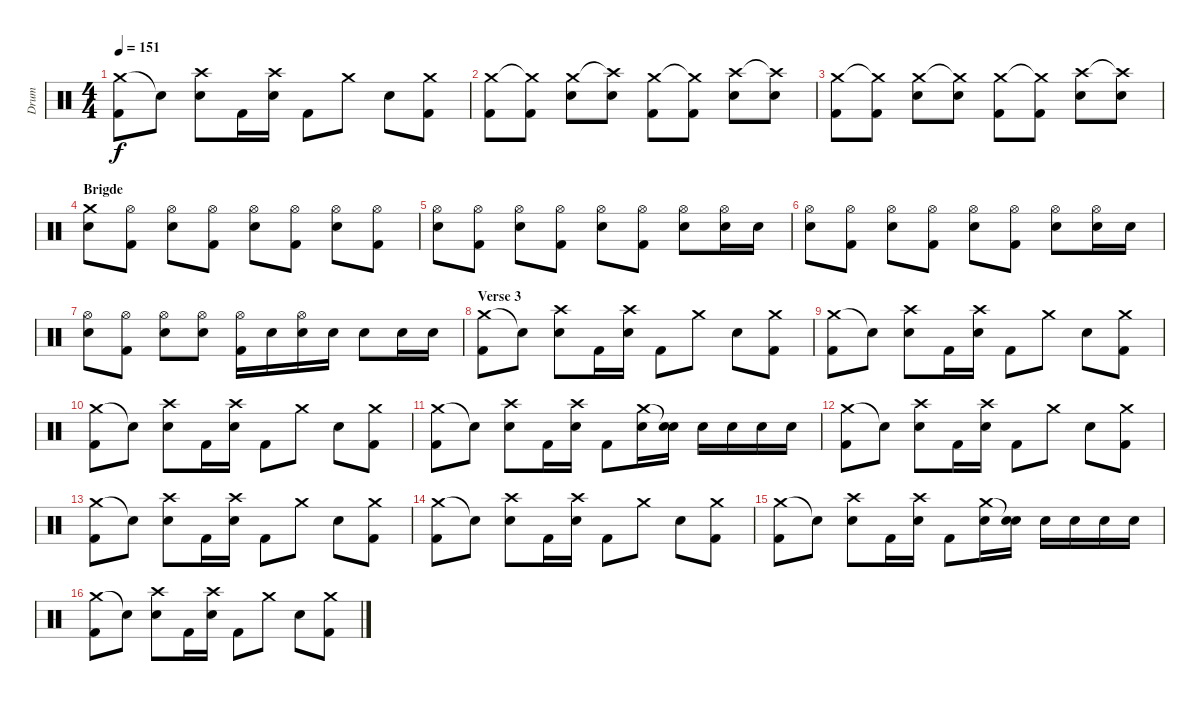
\track ("Drum" "Drum") {instrument percussion}
\staff {score}
\articulation defaults
\ts (4 4)
\tempo 151
\clef neutral
\ks c
("Crash medium (hit)" "Kick (hit) 2").8{dy f} "Snare (hit)"{t}.8 ("Crash high (hit)" "Electric Snare (hit)").8 "Kick (hit) 2".16 ("Crash high (hit)" "Electric Snare (hit)").16 "Kick (hit) 2".8 "Crash medium (hit)".8 "Electric Snare (hit)".8 ("Crash medium (hit)" "Kick (hit) 2").8 |
("Crash medium (hit)" "Kick (hit) 2").8 ("Crash medium (hit)"{t} "Kick (hit) 2").8 ("Crash medium (hit)" "Electric Snare (hit)").8 ("Crash high (hit)"{t} "Electric Snare (hit)").8 ("Crash medium (hit)" "Kick (hit) 2").8 ("Crash medium (hit)"{t} "Kick (hit) 2").8 ("Crash high (hit)" "Electric Snare (hit)").8 ("Crash high (hit)"{t} "Electric Snare (hit)").8 |
("Crash medium (hit)" "Kick (hit) 2").8 ("Crash medium (hit)"{t} "Kick (hit) 2").8 ("Crash medium (hit)" "Electric Snare (hit)").8 ("Crash medium (hit)"{t} "Electric Snare (hit)").8 ("Crash medium (hit)" "Kick (hit) 2").8 ("Crash medium (hit)"{t} "Kick (hit) 2").8 ("Crash high (hit)" "Electric Snare (hit)").8 ("Crash high (hit)"{t} "Electric Snare (hit)").8 |
\section ("" "Brigde")
("Crash medium (hit)" "Electric Snare (hit)").8 ("Hi-Hat (open)" "Kick (hit) 2").8 ("Hi-Hat (open)" "Electric Snare (hit)").8 ("Hi-Hat (open)" "Kick (hit) 2").8 ("Hi-Hat (open)" "Electric Snare (hit)").8 ("Hi-Hat (open)" "Kick (hit) 2").8 ("Hi-Hat (open)" "Electric Snare (hit)").8 ("Hi-Hat (open)" "Kick (hit) 2").8 |
("Hi-Hat (open)" "Electric Snare (hit)").8 ("Hi-Hat (open)" "Kick (hit) 2").8 ("Hi-Hat (open)" "Electric Snare (hit)").8 ("Hi-Hat (open)" "Kick (hit) 2").8 ("Hi-Hat (open)" "Electric Snare (hit)").8 ("Hi-Hat (open)" "Kick (hit) 2").8 ("Hi-Hat (open)" "Electric Snare (hit)").8 ("Hi-Hat (open)" "Electric Snare (hit)").16 "Electric Snare (hit)".16 |
("Hi-Hat (open)" "Electric Snare (hit)").8 ("Hi-Hat (open)" "Kick (hit) 2").8 ("Hi-Hat (open)" "Electric Snare (hit)").8 ("Hi-Hat (open)" "Kick (hit) 2").8 ("Hi-Hat (open)" "Electric Snare (hit)").8 ("Hi-Hat (open)" "Kick (hit) 2").8 ("Hi-Hat (open)" "Electric Snare (hit)").8 ("Hi-Hat (open)" "Electric Snare (hit)").16 "Electric Snare (hit)".16 |
("Hi-Hat (open)" "Electric Snare (hit)").8 ("Hi-Hat (open)" "Kick (hit) 2").8 ("Hi-Hat (open)" "Electric Snare (hit)").8 ("Hi-Hat (open)" "Electric Snare (hit)").8 ("Hi-Hat (open)" "Kick (hit) 2").16 "Electric Snare (hit)".16 ("Hi-Hat (open)" "Electric Snare (hit)").16 "Electric Snare (hit)".16 "Electric Snare (hit)".8 "Electric Snare (hit)".16 "Electric Snare (hit)".16 |
\section ("" "Verse 3")
("Crash medium (hit)" "Kick (hit) 2").8 "Snare (hit)"{t}.8 ("Crash high (hit)" "Electric Snare (hit)").8 "Kick (hit) 2".16 ("Crash high (hit)" "Electric Snare (hit)").16 "Kick (hit) 2".8 "Crash medium (hit)".8 "Electric Snare (hit)".8 ("Crash medium (hit)" "Kick (hit) 2").8 |
("Crash medium (hit)" "Kick (hit) 2").8 "Snare (hit)"{t}.8 ("Crash high (hit)" "Electric Snare (hit)").8 "Kick (hit) 2".16 ("Crash high (hit)" "Electric Snare (hit)").16 "Kick (hit) 2".8 "Crash medium (hit)".8 "Electric Snare (hit)".8 ("Crash medium (hit)" "Kick (hit) 2").8 |
("Crash medium (hit)" "Kick (hit) 2").8 "Snare (hit)"{t}.8 ("Crash high (hit)" "Electric Snare (hit)").8 "Kick (hit) 2".16 ("Crash high (hit)" "Electric Snare (hit)").16 "Kick (hit) 2".8 "Crash medium (hit)".8 "Electric Snare (hit)".8 ("Crash medium (hit)" "Kick (hit) 2").8 |
("Crash medium (hit)" "Kick (hit) 2").8 "Snare (hit)"{t}.8 ("Crash high (hit)" "Electric Snare (hit)").8 "Kick (hit) 2".16 ("Crash high (hit)" "Electric Snare (hit)").16 "Kick (hit) 2".8 ("Crash medium (hit)" "Electric Snare (hit)").16 ("Snare (hit)"{t} "Electric Snare (hit)").16 "Electric Snare (hit)".16 "Electric Snare (hit)".16 "Electric Snare (hit)".16 "Electric Snare (hit)".16 |
("Crash medium (hit)" "Kick (hit) 2").8 "Snare (hit)"{t}.8 ("Crash high (hit)" "Electric Snare (hit)").8 "Kick (hit) 2".16 ("Crash high (hit)" "Electric Snare (hit)").16 "Kick (hit) 2".8 "Crash medium (hit)".8 "Electric Snare (hit)".8 ("Crash medium (hit)" "Kick (hit) 2").8 |
("Crash medium (hit)" "Kick (hit) 2").8 "Snare (hit)"{t}.8 ("Crash high (hit)" "Electric Snare (hit)").8 "Kick (hit) 2".16 ("Crash high (hit)" "Electric Snare (hit)").16 "Kick (hit) 2".8 "Crash medium (hit)".8 "Electric Snare (hit)".8 ("Crash medium (hit)" "Kick (hit) 2").8 |
("Crash medium (hit)" "Kick (hit) 2").8 "Snare (hit)"{t}.8 ("Crash high (hit)" "Electric Snare (hit)").8 "Kick (hit) 2".16 ("Crash high (hit)" "Electric Snare (hit)").16 "Kick (hit) 2".8 "Crash medium (hit)".8 "Electric Snare (hit)".8 ("Crash medium (hit)" "Kick (hit) 2").8 |
("Crash medium (hit)" "Kick (hit) 2").8 "Snare (hit)"{t}.8 ("Crash high (hit)" "Electric Snare (hit)").8 "Kick (hit) 2".16 ("Crash high (hit)" "Electric Snare (hit)").16 "Kick (hit) 2".8 ("Crash medium (hit)" "Electric Snare (hit)").16 ("Snare (hit)"{t} "Electric Snare (hit)").16 "Electric Snare (hit)".16 "Electric Snare (hit)".16 "Electric Snare (hit)".16 "Electric Snare (hit)".16 |
("Crash medium (hit)" "Kick (hit) 2").8 "Snare (hit)"{t}.8 ("Crash high (hit)" "Electric Snare (hit)").8 "Kick (hit) 2".16 ("Crash high (hit)" "Electric Snare (hit)").16 "Kick (hit) 2".8 "Crash medium (hit)".8 "Electric Snare (hit)".8 ("Crash medium (hit)" "Kick (hit) 2").8
